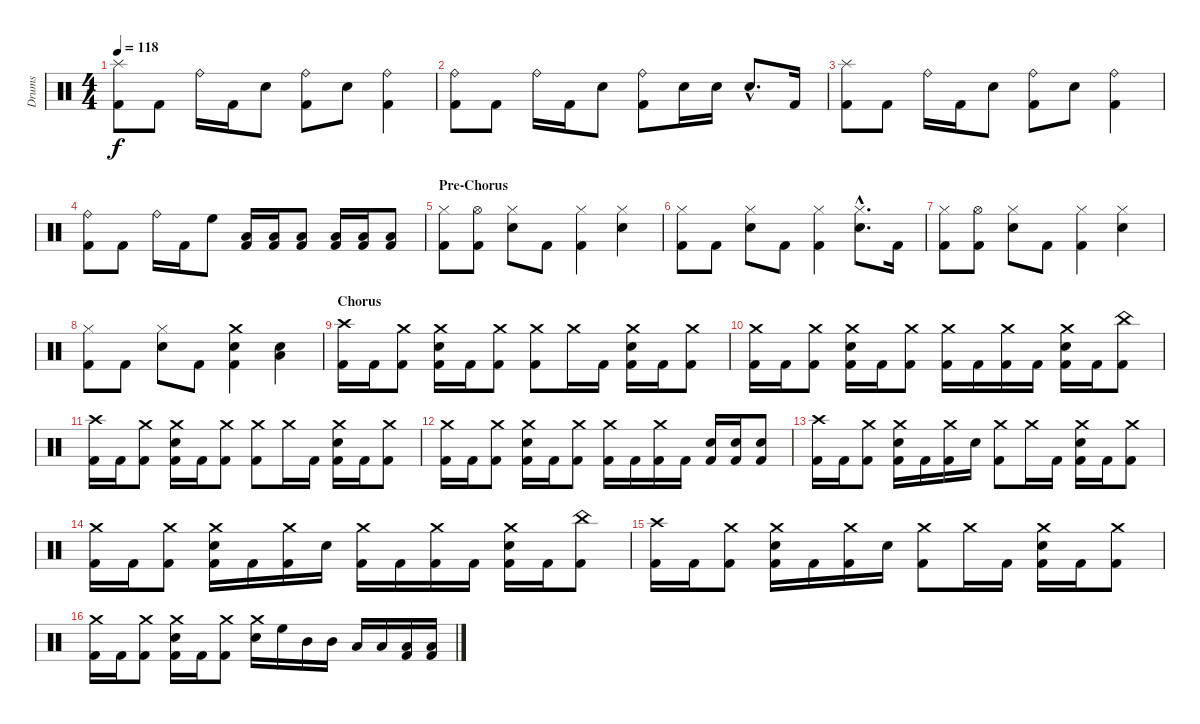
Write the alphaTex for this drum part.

\track ("Drums" "Drums") {instrument percussion}
\staff {score}
\articulation defaults
\ts (4 4)
\tempo 118
\clef neutral
\ks c
("Splash (hit)" "Kick (hit) 2").8{dy f} "Kick (hit) 2".8 "Ride (bell)".16 "Kick (hit) 2".16 "Snare (hit) 2".8 ("Ride (bell)" "Kick (hit) 2").8 "Snare (hit) 2".8 ("Ride (bell)" "Kick (hit) 2").4 |
("Ride (bell)" "Kick (hit) 2").8 "Kick (hit) 2".8 "Ride (bell)".16 "Kick (hit) 2".16 "Snare (hit) 2".8 ("Ride (bell)" "Kick (hit) 2").8 "Snare (hit) 2".16 "Snare (hit) 2".16 "Snare (hit) 2"{hac}.8{d} "Kick (hit) 2".16 |
("Splash (hit)" "Kick (hit) 2").8 "Kick (hit) 2".8 "Ride (bell)".16 "Kick (hit) 2".16 "Snare (hit) 2".8 ("Ride (bell)" "Kick (hit) 2").8 "Snare (hit) 2".8 ("Ride (bell)" "Kick (hit) 2").4 |
("Ride (bell)" "Kick (hit) 2").8 "Kick (hit) 2".8 "Ride (bell)".16 "Kick (hit) 2".16 "High Floor Tom (hit)".8 ("Low Tom (hit)" "Kick (hit) 2").16 ("Low Tom (hit)" "Kick (hit) 2").16 ("Low Tom (hit)" "Kick (hit) 2").8 ("Low Tom (hit)" "Kick (hit) 2").16 ("Low Tom (hit)" "Kick (hit) 2").16 ("Low Tom (hit)" "Kick (hit) 2").8 |
\section ("" "Pre-Chorus")
("Hi-Hat (closed)" "Kick (hit) 2").8 ("Hi-Hat (open)" "Kick (hit) 2").8 ("Hi-Hat (closed)" "Snare (hit) 2").8 "Kick (hit) 2".8 ("Hi-Hat (closed)" "Kick (hit) 2").4 ("Hi-Hat (closed)" "Snare (hit) 2").4 |
("Hi-Hat (closed)" "Kick (hit) 2").8 "Kick (hit) 2".8 ("Hi-Hat (closed)" "Snare (hit) 2").8 "Kick (hit) 2".8 ("Hi-Hat (closed)" "Kick (hit) 2").4 ("Hi-Hat (closed)"{hac} "Snare (hit) 2"{hac}).8{d} "Kick (hit) 2".16 |
("Hi-Hat (closed)" "Kick (hit) 2").8 ("Hi-Hat (open)" "Kick (hit) 2").8 ("Hi-Hat (closed)" "Snare (hit) 2").8 "Kick (hit) 2".8 ("Hi-Hat (closed)" "Kick (hit) 2").4 ("Hi-Hat (closed)" "Snare (hit) 2").4 |
("Hi-Hat (closed)" "Kick (hit) 2").8 "Kick (hit) 2".8 ("Hi-Hat (closed)" "Snare (hit) 2").8 "Kick (hit) 2".8 ("Crash medium (hit)" "Snare (hit) 2" "Kick (hit) 2").4 ("Snare (hit) 2" "Low Floor Tom (hit)").4 |
\section ("" "Chorus")
("Crash high (hit)" "Kick (hit) 2").16 "Kick (hit) 2".16 ("Crash medium (hit)" "Kick (hit) 2").8 ("Crash medium (hit)" "Snare (hit) 2" "Kick (hit) 2").16 "Kick (hit) 2".16 ("Crash medium (hit)" "Kick (hit) 2").8 ("Crash medium (hit)" "Kick (hit) 2").8 "Crash medium (hit)".16 "Kick (hit) 2".16 ("Crash medium (hit)" "Snare (hit) 2" "Kick (hit) 2").16 "Kick (hit) 2".16 ("Crash medium (hit)" "Kick (hit) 2").8 |
("Crash medium (hit)" "Kick (hit) 2").16 "Kick (hit) 2".16 ("Crash medium (hit)" "Kick (hit) 2").8 ("Crash medium (hit)" "Snare (hit) 2" "Kick (hit) 2").16 "Kick (hit) 2".16 ("Crash medium (hit)" "Kick (hit) 2").8 ("Crash medium (hit)" "Kick (hit) 2").16 "Kick (hit) 2".16 ("Crash medium (hit)" "Kick (hit) 2").16 "Kick (hit) 2".16 ("Crash medium (hit)" "Snare (hit) 2" "Kick (hit) 2").16 "Kick (hit) 2".16 ("China (hit)" "Kick (hit) 2").8 |
("Crash high (hit)" "Kick (hit) 2").16 "Kick (hit) 2".16 ("Crash medium (hit)" "Kick (hit) 2").8 ("Crash medium (hit)" "Snare (hit) 2" "Kick (hit) 2").16 "Kick (hit) 2".16 ("Crash medium (hit)" "Kick (hit) 2").8 ("Crash medium (hit)" "Kick (hit) 2").8 "Crash medium (hit)".16 "Kick (hit) 2".16 ("Crash medium (hit)" "Snare (hit) 2" "Kick (hit) 2").16 "Kick (hit) 2".16 ("Crash medium (hit)" "Kick (hit) 2").8 |
("Crash medium (hit)" "Kick (hit) 2").16 "Kick (hit) 2".16 ("Crash medium (hit)" "Kick (hit) 2").8 ("Crash medium (hit)" "Snare (hit) 2" "Kick (hit) 2").16 "Kick (hit) 2".16 ("Crash medium (hit)" "Kick (hit) 2").8 ("Crash medium (hit)" "Kick (hit) 2").16 "Kick (hit) 2".16 ("Crash medium (hit)" "Kick (hit) 2").16 "Kick (hit) 2".16 ("Snare (hit) 2" "Kick (hit) 2").16 ("Snare (hit) 2" "Kick (hit) 2").16 ("Snare (hit) 2" "Kick (hit) 2").8 |
("Crash high (hit)" "Kick (hit) 2").16 "Kick (hit) 2".16 ("Crash medium (hit)" "Kick (hit) 2").8 ("Crash medium (hit)" "Snare (hit) 2" "Kick (hit) 2").16 "Kick (hit) 2".16 ("Crash medium (hit)" "Kick (hit) 2").16 "Snare (hit) 2".16 ("Crash medium (hit)" "Kick (hit) 2").8 "Crash medium (hit)".16 "Kick (hit) 2".16 ("Crash medium (hit)" "Snare (hit) 2" "Kick (hit) 2").16 "Kick (hit) 2".16 ("Crash medium (hit)" "Kick (hit) 2").8 |
("Crash medium (hit)" "Kick (hit) 2").16 "Kick (hit) 2".16 ("Crash medium (hit)" "Kick (hit) 2").8 ("Crash medium (hit)" "Snare (hit) 2" "Kick (hit) 2").16 "Kick (hit) 2".16 ("Crash medium (hit)" "Kick (hit) 2").16 "Snare (hit) 2".16 ("Crash medium (hit)" "Kick (hit) 2").16 "Kick (hit) 2".16 ("Crash medium (hit)" "Kick (hit) 2").16 "Kick (hit) 2".16 ("Crash medium (hit)" "Snare (hit) 2" "Kick (hit) 2").16 "Kick (hit) 2".16 ("China (hit)" "Kick (hit) 2").8 |
("Crash high (hit)" "Kick (hit) 2").16 "Kick (hit) 2".16 ("Crash medium (hit)" "Kick (hit) 2").8 ("Crash medium (hit)" "Snare (hit) 2" "Kick (hit) 2").16 "Kick (hit) 2".16 ("Crash medium (hit)" "Kick (hit) 2").16 "Snare (hit) 2".16 ("Crash medium (hit)" "Kick (hit) 2").8 "Crash medium (hit)".16 "Kick (hit) 2".16 ("Crash medium (hit)" "Snare (hit) 2" "Kick (hit) 2").16 "Kick (hit) 2".16 ("Crash medium (hit)" "Kick (hit) 2").8 |
("Crash medium (hit)" "Kick (hit) 2").16 "Kick (hit) 2".16 ("Crash medium (hit)" "Kick (hit) 2").8 ("Crash medium (hit)" "Snare (hit) 2" "Kick (hit) 2").16 "Kick (hit) 2".16 ("Crash medium (hit)" "Kick (hit) 2").8 ("Crash medium (hit)" "Snare (hit) 2").16 "High Floor Tom (hit)".16 "Mid Tom (hit)".16 "Mid Tom (hit)".16 "Low Tom (hit)".16 "Low Tom (hit)".16 ("Low Floor Tom (hit)" "Kick (hit) 2").16 ("Low Floor Tom (hit)" "Kick (hit) 2").16
